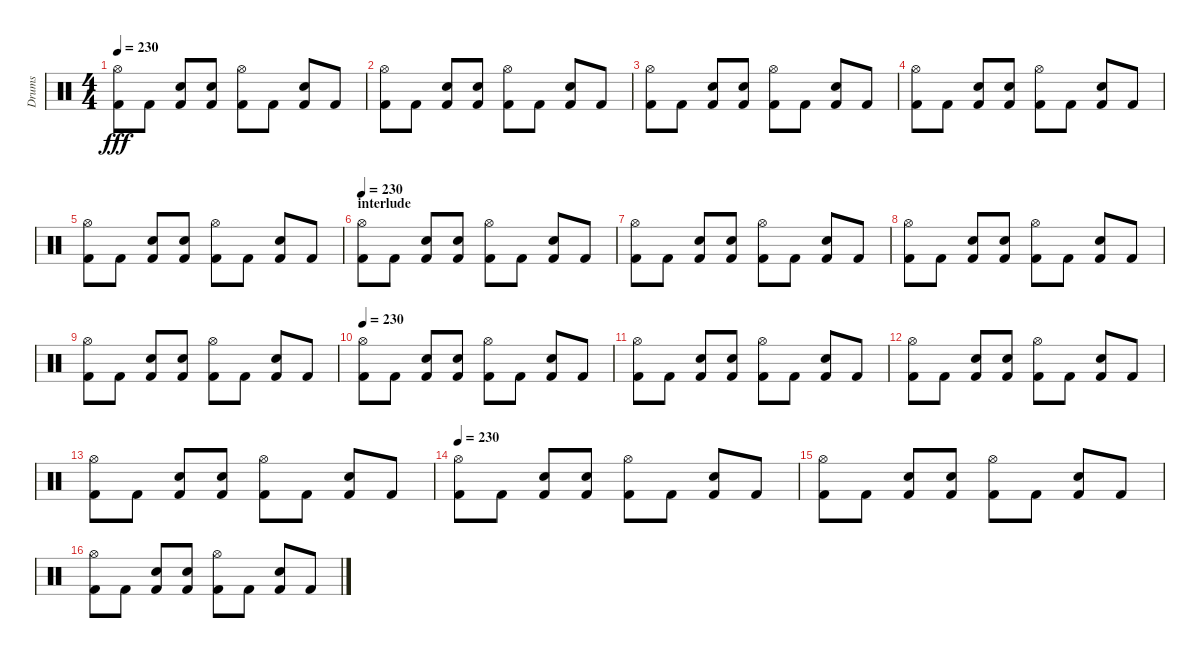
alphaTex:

\track ("Drums" "Drums") {instrument percussion}
\staff {score}
\articulation defaults
\ts (4 4)
\tempo 230
\clef neutral
\ks c
("Hi-Hat (open)" "Kick (hit) 2").8{dy fff} "Kick (hit) 2".8 ("Snare (hit) 2" "Kick (hit) 2").8 ("Snare (hit) 2" "Kick (hit) 2").8 ("Hi-Hat (open)" "Kick (hit) 2").8 "Kick (hit) 2".8 ("Snare (hit) 2" "Kick (hit) 2").8 "Kick (hit) 2".8 |
("Hi-Hat (open)" "Kick (hit) 2").8 "Kick (hit) 2".8 ("Snare (hit) 2" "Kick (hit) 2").8 ("Snare (hit) 2" "Kick (hit) 2").8 ("Hi-Hat (open)" "Kick (hit) 2").8 "Kick (hit) 2".8 ("Snare (hit) 2" "Kick (hit) 2").8 "Kick (hit) 2".8 |
("Hi-Hat (open)" "Kick (hit) 2").8 "Kick (hit) 2".8 ("Snare (hit) 2" "Kick (hit) 2").8 ("Snare (hit) 2" "Kick (hit) 2").8 ("Hi-Hat (open)" "Kick (hit) 2").8 "Kick (hit) 2".8 ("Snare (hit) 2" "Kick (hit) 2").8 "Kick (hit) 2".8 |
("Hi-Hat (open)" "Kick (hit) 2").8 "Kick (hit) 2".8 ("Snare (hit) 2" "Kick (hit) 2").8 ("Snare (hit) 2" "Kick (hit) 2").8 ("Hi-Hat (open)" "Kick (hit) 2").8 "Kick (hit) 2".8 ("Snare (hit) 2" "Kick (hit) 2").8 "Kick (hit) 2".8 |
("Hi-Hat (open)" "Kick (hit) 2").8 "Kick (hit) 2".8 ("Snare (hit) 2" "Kick (hit) 2").8 ("Snare (hit) 2" "Kick (hit) 2").8 ("Hi-Hat (open)" "Kick (hit) 2").8 "Kick (hit) 2".8 ("Snare (hit) 2" "Kick (hit) 2").8 "Kick (hit) 2".8 |
\section ("" "interlude")
\tempo 230
("Hi-Hat (open)" "Kick (hit) 2").8 "Kick (hit) 2".8 ("Snare (hit) 2" "Kick (hit) 2").8 ("Snare (hit) 2" "Kick (hit) 2").8 ("Hi-Hat (open)" "Kick (hit) 2").8 "Kick (hit) 2".8 ("Snare (hit) 2" "Kick (hit) 2").8 "Kick (hit) 2".8 |
("Hi-Hat (open)" "Kick (hit) 2").8 "Kick (hit) 2".8 ("Snare (hit) 2" "Kick (hit) 2").8 ("Snare (hit) 2" "Kick (hit) 2").8 ("Hi-Hat (open)" "Kick (hit) 2").8 "Kick (hit) 2".8 ("Snare (hit) 2" "Kick (hit) 2").8 "Kick (hit) 2".8 |
("Hi-Hat (open)" "Kick (hit) 2").8 "Kick (hit) 2".8 ("Snare (hit) 2" "Kick (hit) 2").8 ("Snare (hit) 2" "Kick (hit) 2").8 ("Hi-Hat (open)" "Kick (hit) 2").8 "Kick (hit) 2".8 ("Snare (hit) 2" "Kick (hit) 2").8 "Kick (hit) 2".8 |
("Hi-Hat (open)" "Kick (hit) 2").8 "Kick (hit) 2".8 ("Snare (hit) 2" "Kick (hit) 2").8 ("Snare (hit) 2" "Kick (hit) 2").8 ("Hi-Hat (open)" "Kick (hit) 2").8 "Kick (hit) 2".8 ("Snare (hit) 2" "Kick (hit) 2").8 "Kick (hit) 2".8 |
\tempo 230
("Hi-Hat (open)" "Kick (hit) 2").8 "Kick (hit) 2".8 ("Snare (hit) 2" "Kick (hit) 2").8 ("Snare (hit) 2" "Kick (hit) 2").8 ("Hi-Hat (open)" "Kick (hit) 2").8 "Kick (hit) 2".8 ("Snare (hit) 2" "Kick (hit) 2").8 "Kick (hit) 2".8 |
("Hi-Hat (open)" "Kick (hit) 2").8 "Kick (hit) 2".8 ("Snare (hit) 2" "Kick (hit) 2").8 ("Snare (hit) 2" "Kick (hit) 2").8 ("Hi-Hat (open)" "Kick (hit) 2").8 "Kick (hit) 2".8 ("Snare (hit) 2" "Kick (hit) 2").8 "Kick (hit) 2".8 |
("Hi-Hat (open)" "Kick (hit) 2").8 "Kick (hit) 2".8 ("Snare (hit) 2" "Kick (hit) 2").8 ("Snare (hit) 2" "Kick (hit) 2").8 ("Hi-Hat (open)" "Kick (hit) 2").8 "Kick (hit) 2".8 ("Snare (hit) 2" "Kick (hit) 2").8 "Kick (hit) 2".8 |
("Hi-Hat (open)" "Kick (hit) 2").8 "Kick (hit) 2".8 ("Snare (hit) 2" "Kick (hit) 2").8 ("Snare (hit) 2" "Kick (hit) 2").8 ("Hi-Hat (open)" "Kick (hit) 2").8 "Kick (hit) 2".8 ("Snare (hit) 2" "Kick (hit) 2").8 "Kick (hit) 2".8 |
\tempo 230
("Hi-Hat (open)" "Kick (hit) 2").8 "Kick (hit) 2".8 ("Snare (hit) 2" "Kick (hit) 2").8 ("Snare (hit) 2" "Kick (hit) 2").8 ("Hi-Hat (open)" "Kick (hit) 2").8 "Kick (hit) 2".8 ("Snare (hit) 2" "Kick (hit) 2").8 "Kick (hit) 2".8 |
("Hi-Hat (open)" "Kick (hit) 2").8 "Kick (hit) 2".8 ("Snare (hit) 2" "Kick (hit) 2").8 ("Snare (hit) 2" "Kick (hit) 2").8 ("Hi-Hat (open)" "Kick (hit) 2").8 "Kick (hit) 2".8 ("Snare (hit) 2" "Kick (hit) 2").8 "Kick (hit) 2".8 |
("Hi-Hat (open)" "Kick (hit) 2").8 "Kick (hit) 2".8 ("Snare (hit) 2" "Kick (hit) 2").8 ("Snare (hit) 2" "Kick (hit) 2").8 ("Hi-Hat (open)" "Kick (hit) 2").8 "Kick (hit) 2".8 ("Snare (hit) 2" "Kick (hit) 2").8 "Kick (hit) 2".8
